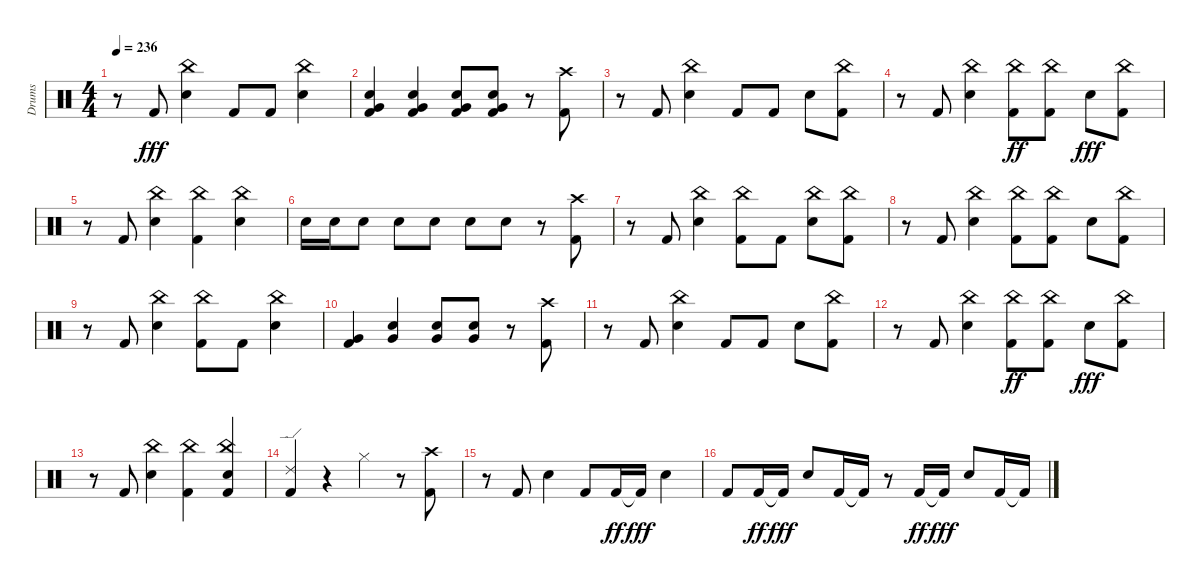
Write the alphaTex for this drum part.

\track ("Drums" "Drums") {instrument percussion}
\staff {score}
\articulation defaults
\ts (4 4)
\tempo 236
\clef neutral
\ks c
r.8{dy fff} "Kick (hit) 2".8 ("China (hit)" "Snare (hit) 2").4 "Kick (hit) 2".8 "Kick (hit) 2".8 ("China (hit)" "Snare (hit) 2").4 |
("Kick (hit) 2" "Snare (hit) 2" "Very Low Tom (hit)").4 ("Snare (hit) 2" "Kick (hit) 2" "Very Low Tom (hit)").4 ("Snare (hit) 2" "Kick (hit) 2" "Very Low Tom (hit)").8 ("Kick (hit) 2" "Snare (hit) 2" "Very Low Tom (hit)").8 r.8 ("Crash high (hit)" "Kick (hit) 2").8 |
r.8 "Kick (hit) 2".8 ("China (hit)" "Snare (hit) 2").4 "Kick (hit) 2".8 "Kick (hit) 2".8 "Snare (hit) 2".8 ("China (hit)" "Kick (hit) 2").8 |
r.8 "Kick (hit) 2".8 ("China (hit)" "Snare (hit) 2").4 ("China (hit)" "Kick (hit) 2").8{dy ff} ("China (hit)" "Kick (hit) 2").8 "Snare (hit) 2".8{dy fff} ("China (hit)" "Kick (hit) 2").8 |
r.8 "Kick (hit) 2".8 ("China (hit)" "Snare (hit) 2").4 ("China (hit)" "Kick (hit) 2").4 ("China (hit)" "Snare (hit) 2").4 |
"Snare (hit) 2".16 "Snare (hit) 2".16 "Snare (hit) 2".8 "Snare (hit) 2".8 "Snare (hit) 2".8 "Snare (hit) 2".8 "Snare (hit) 2".8 r.8 ("Crash high (hit)" "Kick (hit) 2").8 |
r.8 "Kick (hit) 2".8 ("China (hit)" "Snare (hit) 2").4 ("China (hit)" "Kick (hit) 2").8 "Kick (hit) 2".8 ("China (hit)" "Snare (hit) 2").8 ("China (hit)" "Kick (hit) 2").8 |
r.8 "Kick (hit) 2".8 ("China (hit)" "Snare (hit) 2").4 ("China (hit)" "Kick (hit) 2").8 ("China (hit)" "Kick (hit) 2").8 "Snare (hit) 2".8 ("China (hit)" "Kick (hit) 2").8 |
r.8 "Kick (hit) 2".8 ("China (hit)" "Snare (hit) 2").4 ("China (hit)" "Kick (hit) 2").8 "Kick (hit) 2".8 ("China (hit)" "Snare (hit) 2").4 |
("Kick (hit) 2" "Very Low Tom (hit)").4 ("Snare (hit) 2" "Very Low Tom (hit)").4 ("Snare (hit) 2" "Very Low Tom (hit)").8 ("Snare (hit) 2" "Very Low Tom (hit)").8 r.8 ("Crash high (hit)" "Kick (hit) 2").8 |
r.8 "Kick (hit) 2".8 ("China (hit)" "Snare (hit) 2").4 "Kick (hit) 2".8 "Kick (hit) 2".8 "Snare (hit) 2".8 ("China (hit)" "Kick (hit) 2").8 |
r.8 "Kick (hit) 2".8 ("China (hit)" "Snare (hit) 2").4 ("China (hit)" "Kick (hit) 2").8{dy ff} ("China (hit)" "Kick (hit) 2").8 "Snare (hit) 2".8{dy fff} ("China (hit)" "Kick (hit) 2").8 |
r.8 "Kick (hit) 2".8 ("China (hit)" "Snare (hit) 2").4 ("China (hit)" "Kick (hit) 2").4 ("Kick (hit) 2" "China (hit)" "Snare (hit) 2").4 |
("Ride (edge) 2" "Kick (hit) 2").4 r.4 "Hi-Hat (closed)".4 r.8 ("Kick (hit) 2" "Crash high (hit)").8 |
r.8 "Kick (hit) 2".8 "Snare (hit) 2".4 "Kick (hit) 2".8 "Kick (hit) 2".16{dy ff} "Kick (hit) 2"{t}.16{dy fff} "Snare (hit) 2".4 |
"Kick (hit) 2".8 "Kick (hit) 2".16{dy ff} "Kick (hit) 2"{t}.16{dy fff} "Snare (hit) 2".8 "Kick (hit) 2".16 "Kick (hit) 2"{t}.16 r.8 "Kick (hit) 2".16{dy ff} "Kick (hit) 2"{t}.16{dy fff} "Snare (hit) 2".8 "Kick (hit) 2".16 "Kick (hit) 2"{t}.16
